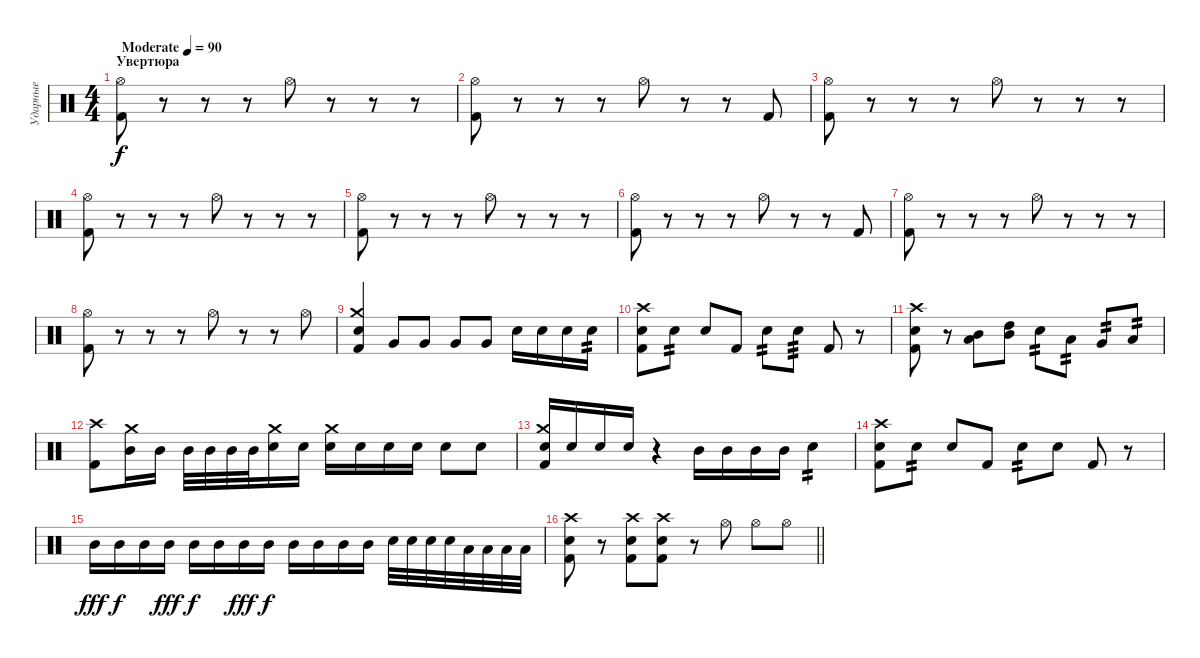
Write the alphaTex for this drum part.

\track ("Ударные" "Ударные") {instrument percussion}
\staff {score}
\articulation defaults
\ts (4 4)
\section ("" "Увертюра")
\tempo (90 "Moderate")
\clef neutral
\ks c
("Kick (hit) 2" "Hi-Hat (open)").8{dy f} r.8 r.8 r.8 "Hi-Hat (open)".8 r.8 r.8 r.8 |
("Kick (hit) 2" "Hi-Hat (open)").8 r.8 r.8 r.8 "Hi-Hat (open)".8 r.8 r.8 "Kick (hit) 2".8 |
("Kick (hit) 2" "Hi-Hat (open)").8 r.8 r.8 r.8 "Hi-Hat (open)".8 r.8 r.8 r.8 |
("Kick (hit) 2" "Hi-Hat (open)").8 r.8 r.8 r.8 "Hi-Hat (open)".8 r.8 r.8 r.8 |
("Kick (hit) 2" "Hi-Hat (open)").8 r.8 r.8 r.8 "Hi-Hat (open)".8 r.8 r.8 r.8 |
("Kick (hit) 2" "Hi-Hat (open)").8 r.8 r.8 r.8 "Hi-Hat (open)".8 r.8 r.8 "Kick (hit) 2".8 |
("Kick (hit) 2" "Hi-Hat (open)").8 r.8 r.8 r.8 "Hi-Hat (open)".8 r.8 r.8 r.8 |
("Kick (hit) 2" "Hi-Hat (open)").8 r.8 r.8 r.8 "Hi-Hat (open)".8 r.8 r.8 "Hi-Hat (open)".8 |
("Crash medium (hit)" "Electric Snare (hit)" "Kick (hit) 2").4 "Very Low Tom (hit)".8 "Very Low Tom (hit)".8 "Very Low Tom (hit)".8 "Very Low Tom (hit)".8 "Snare (hit) 2".16 "Snare (hit) 2".16 "Snare (hit) 2".16 "Snare (hit) 2".16{tp 2} |
("Kick (hit) 2" "Snare (hit) 2" "Crash high (hit)").8 "Electric Snare (hit)".8{tp 2} "Electric Snare (hit)".8 "Kick (hit) 2".8 "Electric Snare (hit)".8{tp 2} "Electric Snare (hit)".8{tp 3} "Kick (hit) 2".8 r.8 |
("Kick (hit) 2" "Snare (hit) 2" "Crash high (hit)").8 r.8 ("Mid Tom (hit)" "Low Tom (hit)").8 ("High Tom (hit)" "Mid Tom (hit)").8 "Electric Snare (hit)".8{tp 2} "Low Floor Tom (hit)".8{tp 2} "Very Low Tom (hit)".8{tp 2} "Low Tom (hit)".8{tp 2} |
("Crash high (hit)" "Kick (hit) 2").8 ("Crash medium (hit)" "Mid Tom (hit)").16 "Mid Tom (hit)".16 "Mid Tom (hit)".32 "Mid Tom (hit)".32 "Mid Tom (hit)".32 "Mid Tom (hit)".32 ("Crash medium (hit)" "Snare (hit) 2").16 "Snare (hit) 2".16 ("Crash medium (hit)" "Snare (hit) 2").16 "Snare (hit) 2".16 "Snare (hit) 2".16 "Snare (hit) 2".16 "Snare (hit) 2".8 "Snare (hit) 2".8 |
("Crash medium (hit)" "Snare (hit) 2" "Kick (hit) 2").16 "Snare (hit) 2".16 "Snare (hit) 2".16 "Snare (hit) 2".16 r.4 "Mid Tom (hit)".16 "Mid Tom (hit)".16 "Mid Tom (hit)".16 "Mid Tom (hit)".16 "Electric Snare (hit)".4{tp 2} |
("Kick (hit) 2" "Snare (hit) 2" "Crash high (hit)").8 "Electric Snare (hit)".8{tp 2} "Electric Snare (hit)".8 "Kick (hit) 2".8 "Electric Snare (hit)".8{tp 2} "Electric Snare (hit)".8 "Kick (hit) 2".8 r.8 |
"Mid Tom (hit)".16{dy fff} "Mid Tom (hit)".16{dy f} "Mid Tom (hit)".16 "Mid Tom (hit)".16{dy fff} "Mid Tom (hit)".16{dy f} "Mid Tom (hit)".16 "Mid Tom (hit)".16{dy fff} "Mid Tom (hit)".16{dy f} "Mid Tom (hit)".16 "Mid Tom (hit)".16 "Mid Tom (hit)".16 "Mid Tom (hit)".16 "Snare (hit) 2".32 "Snare (hit) 2".32 "Snare (hit) 2".32 "Snare (hit) 2".32 "Low Tom (hit)".32 "Low Tom (hit)".32 "Low Tom (hit)".32 "Low Tom (hit)".32 |
\barLineRight lightlight
("Kick (hit) 2" "Snare (hit) 2" "Crash high (hit)").8 r.8 ("Kick (hit) 2" "Snare (hit) 2" "Crash high (hit)").8 ("Kick (hit) 2" "Snare (hit) 2" "Crash high (hit)").8 r.8 "Hi-Hat (open)".8 "Hi-Hat (open)".8 "Hi-Hat (open)".8
